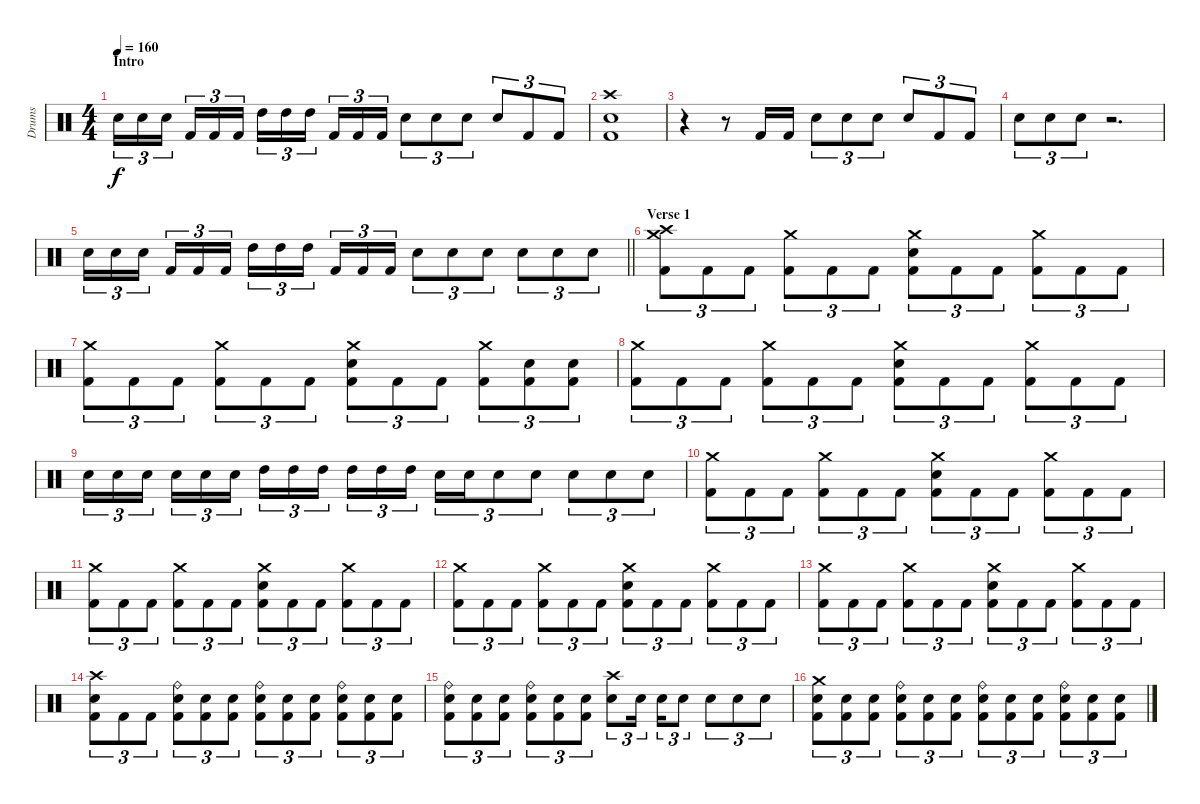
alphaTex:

\track ("Drums" "Drums") {instrument percussion}
\staff {score}
\articulation defaults
\ts (4 4)
\section ("" "Intro")
\tempo 160
\clef neutral
\ks c "Electric Snare (hit)".16{tu (3 2) dy f} "Electric Snare (hit)".16{tu (3 2)} "Electric Snare (hit)".16{tu (3 2) beam splitsecondary} "Kick (hit) 2".16{tu (3 2)} "Kick (hit) 2".16{tu (3 2)} "Kick (hit) 2".16{tu (3 2)} "High Tom (hit)".16{tu (3 2)} "High Tom (hit)".16{tu (3 2)} "High Tom (hit)".16{tu (3 2) beam splitsecondary} "Kick (hit) 2".16{tu (3 2)} "Kick (hit) 2".16{tu (3 2)} "Kick (hit) 2".16{tu (3 2)} "Electric Snare (hit)".8{tu (3 2)} "Electric Snare (hit)".8{tu (3 2)} "Electric Snare (hit)".8{tu (3 2)} "Electric Snare (hit)".8{tu (3 2)} "Kick (hit) 2".8{tu (3 2)} "Kick (hit) 2".8{tu (3 2)}
|
("Crash high (hit)" "Electric Snare (hit)" "Kick (hit) 2").1 |
r.4 r.8 "Kick (hit) 2".16 "Kick (hit) 2".16 "Electric Snare (hit)".8{tu (3 2)} "Electric Snare (hit)".8{tu (3 2)} "Electric Snare (hit)".8{tu (3 2)} "Electric Snare (hit)".8{tu (3 2)} "Kick (hit) 2".8{tu (3 2)} "Kick (hit) 2".8{tu (3 2)} |
"Electric Snare (hit)".8{tu (3 2)} "Electric Snare (hit)".8{tu (3 2)} "Electric Snare (hit)".8{tu (3 2)} r.2{d} |
\barLineRight lightlight "Electric Snare (hit)".16{tu (3 2)} "Electric Snare (hit)".16{tu (3 2)} "Electric Snare (hit)".16{tu (3 2) beam splitsecondary} "Kick (hit) 2".16{tu (3 2)} "Kick (hit) 2".16{tu (3 2)} "Kick (hit) 2".16{tu (3 2)} "High Tom (hit)".16{tu (3 2)} "High Tom (hit)".16{tu (3 2)} "High Tom (hit)".16{tu (3 2) beam splitsecondary} "Kick (hit) 2".16{tu (3 2)} "Kick (hit) 2".16{tu (3 2)} "Kick (hit) 2".16{tu (3 2)} "Electric Snare (hit)".8{tu (3 2)} "Electric Snare (hit)".8{tu (3 2)} "Electric Snare (hit)".8{tu (3 2)} "Electric Snare (hit)".8{tu (3 2)} "Electric Snare (hit)".8{tu (3 2)} "Electric Snare (hit)".8{tu (3 2)}
|
\section ("" "Verse 1")
("Crash high (hit)" "Crash medium (hit)" "Kick (hit) 2").8{tu (3 2)} "Kick (hit) 2".8{tu (3 2)} "Kick (hit) 2".8{tu (3 2)} ("Crash medium (hit)" "Kick (hit) 2").8{tu (3 2)} "Kick (hit) 2".8{tu (3 2)} "Kick (hit) 2".8{tu (3 2)} ("Crash medium (hit)" "Electric Snare (hit)" "Kick (hit) 2").8{tu (3 2)} "Kick (hit) 2".8{tu (3 2)} "Kick (hit) 2".8{tu (3 2)} ("Crash medium (hit)" "Kick (hit) 2").8{tu (3 2)} "Kick (hit) 2".8{tu (3 2)} "Kick (hit) 2".8{tu (3 2)} |
("Crash medium (hit)" "Kick (hit) 2").8{tu (3 2)} "Kick (hit) 2".8{tu (3 2)} "Kick (hit) 2".8{tu (3 2)} ("Crash medium (hit)" "Kick (hit) 2").8{tu (3 2)} "Kick (hit) 2".8{tu (3 2)} "Kick (hit) 2".8{tu (3 2)} ("Crash medium (hit)" "Electric Snare (hit)" "Kick (hit) 2").8{tu (3 2)} "Kick (hit) 2".8{tu (3 2)} "Kick (hit) 2".8{tu (3 2)} ("Crash medium (hit)" "Kick (hit) 2").8{tu (3 2)} ("Electric Snare (hit)" "Kick (hit) 2").8{tu (3 2)} ("Electric Snare (hit)" "Kick (hit) 2").8{tu (3 2)} |
("Crash medium (hit)" "Kick (hit) 2").8{tu (3 2)} "Kick (hit) 2".8{tu (3 2)} "Kick (hit) 2".8{tu (3 2)} ("Crash medium (hit)" "Kick (hit) 2").8{tu (3 2)} "Kick (hit) 2".8{tu (3 2)} "Kick (hit) 2".8{tu (3 2)} ("Crash medium (hit)" "Electric Snare (hit)" "Kick (hit) 2").8{tu (3 2)} "Kick (hit) 2".8{tu (3 2)} "Kick (hit) 2".8{tu (3 2)} ("Crash medium (hit)" "Kick (hit) 2").8{tu (3 2)} "Kick (hit) 2".8{tu (3 2)} "Kick (hit) 2".8{tu (3 2)} |
"Electric Snare (hit)".16{tu (3 2)} "Electric Snare (hit)".16{tu (3 2)} "Electric Snare (hit)".16{tu (3 2) beam splitsecondary} "Electric Snare (hit)".16{tu (3 2)} "Electric Snare (hit)".16{tu (3 2)} "Electric Snare (hit)".16{tu (3 2)} "High Tom (hit)".16{tu (3 2)} "High Tom (hit)".16{tu (3 2)} "High Tom (hit)".16{tu (3 2) beam splitsecondary} "High Tom (hit)".16{tu (3 2)} "High Tom (hit)".16{tu (3 2)} "High Tom (hit)".16{tu (3 2)} "Electric Snare (hit)".16{tu (3 2)} "Electric Snare (hit)".16{tu (3 2)} "Electric Snare (hit)".8{tu (3 2)} "Electric Snare (hit)".8{tu (3 2)} "Electric Snare (hit)".8{tu (3 2)} "Electric Snare (hit)".8{tu (3 2)} "Electric Snare (hit)".8{tu (3 2)} |
("Crash medium (hit)" "Kick (hit) 2").8{tu (3 2)} "Kick (hit) 2".8{tu (3 2)} "Kick (hit) 2".8{tu (3 2)} ("Crash medium (hit)" "Kick (hit) 2").8{tu (3 2)} "Kick (hit) 2".8{tu (3 2)} "Kick (hit) 2".8{tu (3 2)} ("Crash medium (hit)" "Electric Snare (hit)" "Kick (hit) 2").8{tu (3 2)} "Kick (hit) 2".8{tu (3 2)} "Kick (hit) 2".8{tu (3 2)} ("Crash medium (hit)" "Kick (hit) 2").8{tu (3 2)} "Kick (hit) 2".8{tu (3 2)} "Kick (hit) 2".8{tu (3 2)} |
("Crash medium (hit)" "Kick (hit) 2").8{tu (3 2)} "Kick (hit) 2".8{tu (3 2)} "Kick (hit) 2".8{tu (3 2)} ("Crash medium (hit)" "Kick (hit) 2").8{tu (3 2)} "Kick (hit) 2".8{tu (3 2)} "Kick (hit) 2".8{tu (3 2)} ("Crash medium (hit)" "Electric Snare (hit)" "Kick (hit) 2").8{tu (3 2)} "Kick (hit) 2".8{tu (3 2)} "Kick (hit) 2".8{tu (3 2)} ("Crash medium (hit)" "Kick (hit) 2").8{tu (3 2)} "Kick (hit) 2".8{tu (3 2)} "Kick (hit) 2".8{tu (3 2)} |
("Crash medium (hit)" "Kick (hit) 2").8{tu (3 2)} "Kick (hit) 2".8{tu (3 2)} "Kick (hit) 2".8{tu (3 2)} ("Crash medium (hit)" "Kick (hit) 2").8{tu (3 2)} "Kick (hit) 2".8{tu (3 2)} "Kick (hit) 2".8{tu (3 2)} ("Crash medium (hit)" "Electric Snare (hit)" "Kick (hit) 2").8{tu (3 2)} "Kick (hit) 2".8{tu (3 2)} "Kick (hit) 2".8{tu (3 2)} ("Crash medium (hit)" "Kick (hit) 2").8{tu (3 2)} "Kick (hit) 2".8{tu (3 2)} "Kick (hit) 2".8{tu (3 2)} |
("Crash medium (hit)" "Kick (hit) 2").8{tu (3 2)} "Kick (hit) 2".8{tu (3 2)} "Kick (hit) 2".8{tu (3 2)} ("Crash medium (hit)" "Kick (hit) 2").8{tu (3 2)} "Kick (hit) 2".8{tu (3 2)} "Kick (hit) 2".8{tu (3 2)} ("Crash medium (hit)" "Electric Snare (hit)" "Kick (hit) 2").8{tu (3 2)} "Kick (hit) 2".8{tu (3 2)} "Kick (hit) 2".8{tu (3 2)} ("Crash medium (hit)" "Kick (hit) 2").8{tu (3 2)} "Kick (hit) 2".8{tu (3 2)} "Kick (hit) 2".8{tu (3 2)} |
("Crash high (hit)" "Electric Snare (hit)" "Kick (hit) 2").8{tu (3 2)} "Kick (hit) 2".8{tu (3 2)} "Kick (hit) 2".8{tu (3 2)} ("Ride (bell)" "Electric Snare (hit)" "Kick (hit) 2").8{tu (3 2)} ("Electric Snare (hit)" "Kick (hit) 2").8{tu (3 2)} ("Electric Snare (hit)" "Kick (hit) 2").8{tu (3 2)} ("Ride (bell)" "Electric Snare (hit)" "Kick (hit) 2").8{tu (3 2)} ("Electric Snare (hit)" "Kick (hit) 2").8{tu (3 2)} ("Electric Snare (hit)" "Kick (hit) 2").8{tu (3 2)} ("Ride (bell)" "Electric Snare (hit)" "Kick (hit) 2").8{tu (3 2)} ("Electric Snare (hit)" "Kick (hit) 2").8{tu (3 2)} ("Electric Snare (hit)" "Kick (hit) 2").8{tu (3 2)} |
("Ride (bell)" "Electric Snare (hit)" "Kick (hit) 2").8{tu (3 2)} ("Electric Snare (hit)" "Kick (hit) 2").8{tu (3 2)} ("Electric Snare (hit)" "Kick (hit) 2").8{tu (3 2)} ("Ride (bell)" "Electric Snare (hit)" "Kick (hit) 2").8{tu (3 2)} ("Electric Snare (hit)" "Kick (hit) 2").8{tu (3 2)} ("Electric Snare (hit)" "Kick (hit) 2").8{tu (3 2)} ("Crash high (hit)" "Electric Snare (hit)").8{tu (3 2)} "Electric Snare (hit)".16{tu (3 2) beam splitsecondary} "Electric Snare (hit)".16{tu (3 2)} "Electric Snare (hit)".8{tu (3 2)} "Electric Snare (hit)".8{tu (3 2)} "Electric Snare (hit)".8{tu (3 2)} "Electric Snare (hit)".8{tu (3 2)} |
("Crash medium (hit)" "Electric Snare (hit)" "Kick (hit) 2").8{tu (3 2)} ("Electric Snare (hit)" "Kick (hit) 2").8{tu (3 2)} ("Electric Snare (hit)" "Kick (hit) 2").8{tu (3 2)} ("Ride (bell)" "Electric Snare (hit)" "Kick (hit) 2").8{tu (3 2)} ("Electric Snare (hit)" "Kick (hit) 2").8{tu (3 2)} ("Electric Snare (hit)" "Kick (hit) 2").8{tu (3 2)} ("Ride (bell)" "Electric Snare (hit)" "Kick (hit) 2").8{tu (3 2)} ("Electric Snare (hit)" "Kick (hit) 2").8{tu (3 2)} ("Electric Snare (hit)" "Kick (hit) 2").8{tu (3 2)} ("Ride (bell)" "Electric Snare (hit)" "Kick (hit) 2").8{tu (3 2)} ("Electric Snare (hit)" "Kick (hit) 2").8{tu (3 2)} ("Electric Snare (hit)" "Kick (hit) 2").8{tu (3 2)}
